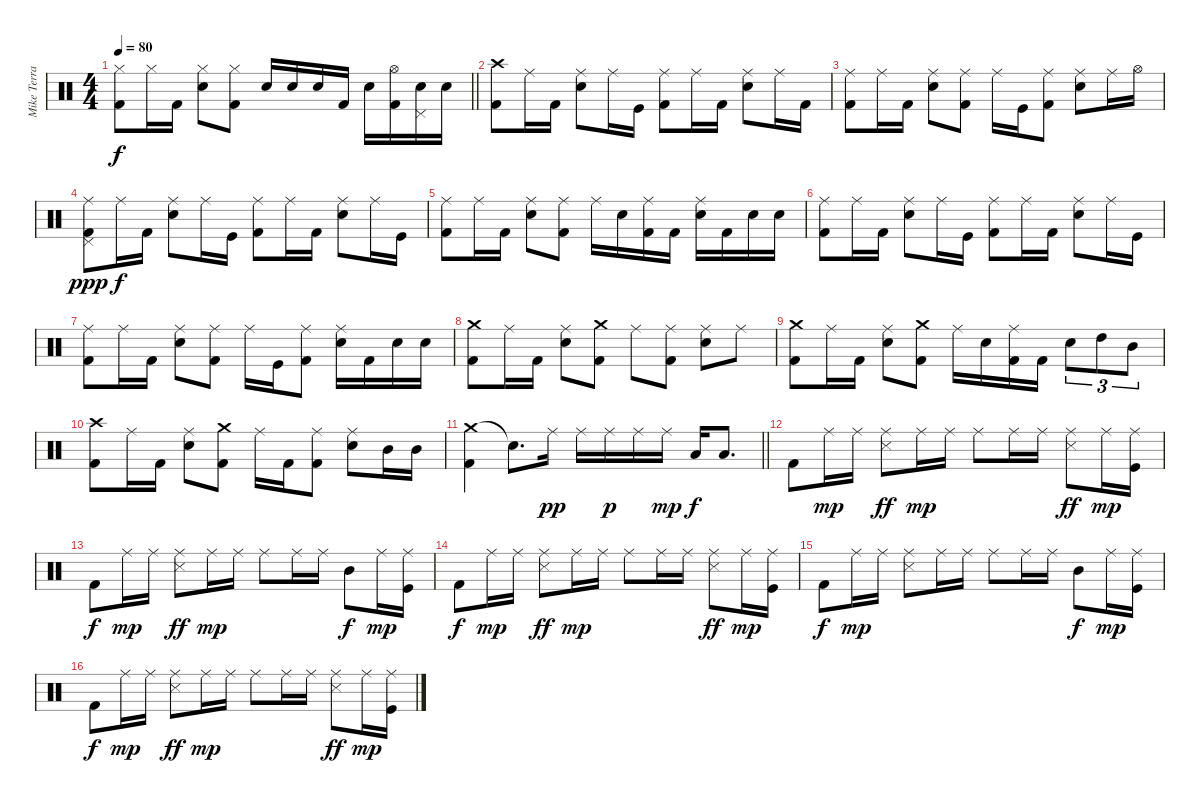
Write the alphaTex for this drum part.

\track ("Mike Terrana" "Mike Terra") {instrument percussion}
\staff {score}
\articulation defaults
\ts (4 4)
\tempo 80
\clef neutral
\barLineRight lightlight
\ks c
("Hi-Hat (closed)" "Kick (hit) 2").8{dy f} "Hi-Hat (closed)".16 "Kick (hit) 2".16 ("Hi-Hat (closed)" "Electric Snare (hit)").8 ("Hi-Hat (closed)" "Kick (hit) 2").8 "Electric Snare (hit)".16 "Electric Snare (hit)".16 "Electric Snare (hit)".16 "Kick (hit) 2".16 "Electric Snare (hit)".16 ("Hi-Hat (open)" "Kick (hit) 2").16 ("Pedal Hi-Hat (hit)" "Electric Snare (hit)").16 "Electric Snare (hit)".16 |
("Crash high (hit)" "Kick (hit) 2").8 "Ride (middle)".16 "Kick (hit) 2".16 ("Ride (middle)" "Electric Snare (hit)").8 "Ride (middle)".16 "Kick (hit)".16 ("Ride (middle)" "Kick (hit) 2").8 "Ride (middle)".16 "Kick (hit) 2".16 ("Ride (middle)" "Electric Snare (hit)").8 "Ride (middle)".16 "Kick (hit) 2".16 |
("Ride (middle)" "Kick (hit) 2").8 "Ride (middle)".16 "Kick (hit) 2".16 ("Ride (middle)" "Electric Snare (hit)").8 ("Ride (middle)" "Kick (hit) 2").8 "Ride (middle)".16 "Kick (hit)".16 ("Ride (middle)" "Kick (hit) 2").8 ("Ride (middle)" "Electric Snare (hit)").8 "Ride (middle)".16 "Hi-Hat (open)".16 |
("Ride (middle)" "Pedal Hi-Hat (hit)" "Kick (hit) 2").8{dy ppp} "Ride (middle)".16{dy f} "Kick (hit) 2".16 ("Ride (middle)" "Electric Snare (hit)").8 "Ride (middle)".16 "Kick (hit)".16 ("Ride (middle)" "Kick (hit) 2").8 "Ride (middle)".16 "Kick (hit) 2".16 ("Ride (middle)" "Electric Snare (hit)").8 "Ride (middle)".16 "Kick (hit)".16 |
("Ride (middle)" "Kick (hit) 2").8 "Ride (middle)".16 "Kick (hit) 2".16 ("Ride (middle)" "Electric Snare (hit)").8 ("Ride (middle)" "Kick (hit) 2").8 "Ride (middle)".16 "Electric Snare (hit)".16 ("Ride (middle)" "Kick (hit) 2").16 "Kick (hit) 2".16 ("Ride (middle)" "Electric Snare (hit)").16 "Kick (hit) 2".16 "Electric Snare (hit)".16 "Electric Snare (hit)".16 |
("Ride (middle)" "Kick (hit) 2").8 "Ride (middle)".16 "Kick (hit) 2".16 ("Ride (middle)" "Electric Snare (hit)").8 "Ride (middle)".16 "Kick (hit)".16 ("Ride (middle)" "Kick (hit) 2").8 "Ride (middle)".16 "Kick (hit) 2".16 ("Ride (middle)" "Electric Snare (hit)").8 "Ride (middle)".16 "Kick (hit)".16 |
("Ride (middle)" "Kick (hit) 2").8 "Ride (middle)".16 "Kick (hit) 2".16 ("Ride (middle)" "Electric Snare (hit)").8 ("Ride (middle)" "Kick (hit) 2").8 "Ride (middle)".16 "Kick (hit)".16 ("Ride (middle)" "Kick (hit) 2").8 ("Ride (middle)" "Electric Snare (hit)").16 "Kick (hit) 2".16 "Electric Snare (hit)".16 "Electric Snare (hit)".16 |
("Crash medium (hit)" "Kick (hit) 2").8 "Ride (middle)".16 "Kick (hit) 2".16 ("Ride (middle)" "Electric Snare (hit)").8 ("Crash medium (hit)" "Kick (hit) 2").8 "Ride (middle)".8 ("Ride (middle)" "Kick (hit) 2").8 ("Ride (middle)" "Electric Snare (hit)").8 "Ride (middle)".8 |
("Crash medium (hit)" "Kick (hit) 2").8 "Ride (middle)".16 "Kick (hit) 2".16 ("Ride (middle)" "Electric Snare (hit)").8 ("Crash medium (hit)" "Kick (hit) 2").8 "Ride (middle)".16 "Electric Snare (hit)".16 ("Ride (middle)" "Kick (hit) 2").16 "Kick (hit) 2".16 "Electric Snare (hit)".8{tu (3 2)} "High Tom (hit)".8{tu (3 2)} "Mid Tom (hit)".8{tu (3 2)} |
("Crash high (hit)" "Kick (hit) 2").8 "Ride (middle)".16 "Kick (hit) 2".16 ("Ride (middle)" "Electric Snare (hit)").8 ("Crash medium (hit)" "Kick (hit) 2").8 "Ride (middle)".16 "Kick (hit) 2".16 ("Ride (middle)" "Kick (hit) 2").8 ("Ride (middle)" "Electric Snare (hit)").8 "Mid Tom (hit)".16 "Mid Tom (hit)".16 |
\barLineRight lightlight
("Crash medium (hit)" "Kick (hit) 2").4 "Snare (hit)"{t}.8{d} "Ride (middle)".16{dy pp} "Ride (middle)".16 "Ride (middle)".16{dy p} "Ride (middle)".16 "Ride (middle)".16{dy mp} "Low Tom (hit)".16{dy f} "Low Floor Tom (hit)".8{d} |
"Kick (hit) 2".8 "Ride (middle)".16{dy mp} "Ride (middle)".16 ("Ride (middle)" "Snare (side stick) 3").8{dy ff} "Ride (middle)".16{dy mp} "Ride (middle)".16 "Ride (middle)".8 "Ride (middle)".16 "Ride (middle)".16 ("Ride (middle)" "Snare (side stick) 3").8{dy ff} "Ride (middle)".16{dy mp} ("Ride (middle)" "Kick (hit)").16 |
"Kick (hit) 2".8{dy f} "Ride (middle)".16{dy mp} "Ride (middle)".16 ("Ride (middle)" "Snare (side stick) 3").8{dy ff} "Ride (middle)".16{dy mp} "Ride (middle)".16 "Ride (middle)".8 "Ride (middle)".16 "Ride (middle)".16 "Mid Tom (hit)".8{dy f} "Ride (middle)".16{dy mp} ("Ride (middle)" "Kick (hit)").16 |
"Kick (hit) 2".8{dy f} "Ride (middle)".16{dy mp} "Ride (middle)".16 ("Ride (middle)" "Snare (side stick) 3").8{dy ff} "Ride (middle)".16{dy mp} "Ride (middle)".16 "Ride (middle)".8 "Ride (middle)".16 "Ride (middle)".16 ("Ride (middle)" "Snare (side stick) 3").8{dy ff} "Ride (middle)".16{dy mp} ("Ride (middle)" "Kick (hit)").16 |
"Kick (hit) 2".8{dy f} "Ride (middle)".16{dy mp} "Ride (middle)".16 ("Ride (middle)" "Snare (side stick) 3").8 "Ride (middle)".16 "Ride (middle)".16 "Ride (middle)".8 "Ride (middle)".16 "Ride (middle)".16 "Mid Tom (hit)".8{dy f} "Ride (middle)".16{dy mp} ("Ride (middle)" "Kick (hit)").16 |
"Kick (hit) 2".8{dy f} "Ride (middle)".16{dy mp} "Ride (middle)".16 ("Ride (middle)" "Snare (side stick) 3").8{dy ff} "Ride (middle)".16{dy mp} "Ride (middle)".16 "Ride (middle)".8 "Ride (middle)".16 "Ride (middle)".16 ("Ride (middle)" "Snare (side stick) 3").8{dy ff} "Ride (middle)".16{dy mp} ("Ride (middle)" "Kick (hit)").16
